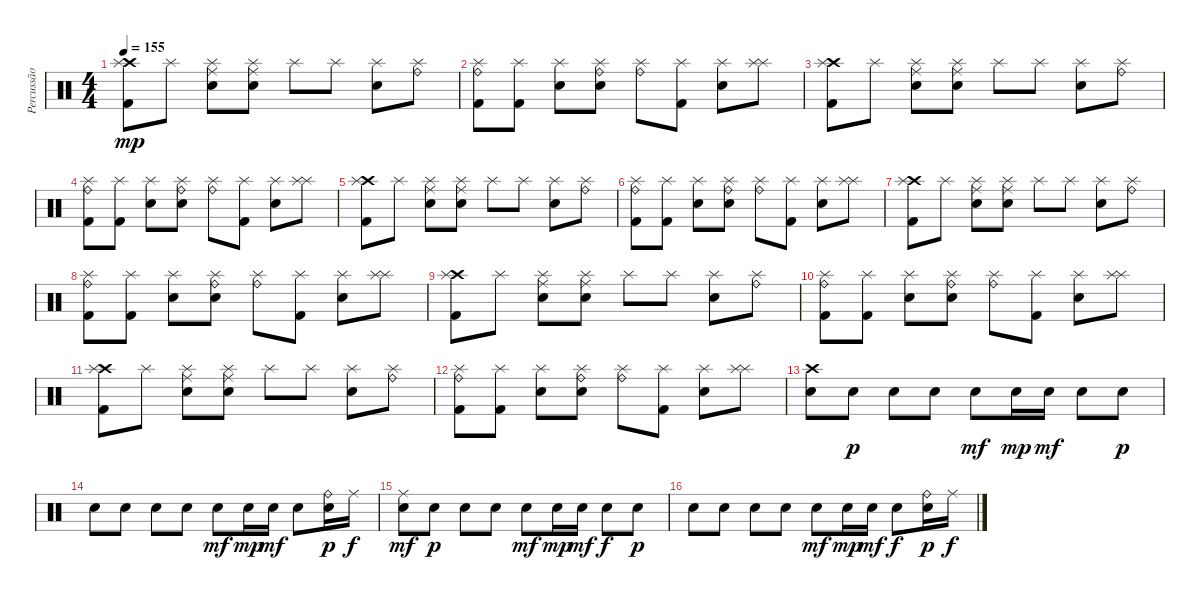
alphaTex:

\track ("Percussão" "Percussão") {instrument percussion}
\staff {score}
\articulation defaults
\ts (4 4)
\tempo 155
\clef neutral
\ks c
("Crash high (hit)" "Kick (hit) 2" "Splash (hit)").8{dy mp} "Splash (hit)".8 ("Ride (middle)" "Electric Snare (hit)" "Splash (hit)").8 ("Ride (middle)" "Electric Snare (hit)" "Splash (hit)").8 "Splash (hit)".8 "Splash (hit)".8 ("Electric Snare (hit)" "Splash (hit)").8 ("Ride (bell)" "Splash (hit)").8 |
("Ride (bell)" "Kick (hit) 2" "Splash (hit)").8 ("Kick (hit) 2" "Splash (hit)").8 ("Electric Snare (hit)" "Splash (hit)").8 ("Ride (bell)" "Electric Snare (hit)" "Splash (hit)").8 ("Ride (bell)" "Splash (hit)").8 ("Kick (hit) 2" "Splash (hit)").8 ("Electric Snare (hit)" "Splash (hit)").8 ("Splash (hit)" "Splash (hit)").8 |
("Crash high (hit)" "Kick (hit) 2" "Splash (hit)").8 "Splash (hit)".8 ("Ride (middle)" "Electric Snare (hit)" "Splash (hit)").8 ("Ride (middle)" "Electric Snare (hit)" "Splash (hit)").8 "Splash (hit)".8 "Splash (hit)".8 ("Electric Snare (hit)" "Splash (hit)").8 ("Ride (bell)" "Splash (hit)").8 |
("Ride (bell)" "Kick (hit) 2" "Splash (hit)").8 ("Kick (hit) 2" "Splash (hit)").8 ("Electric Snare (hit)" "Splash (hit)").8 ("Ride (bell)" "Electric Snare (hit)" "Splash (hit)").8 ("Ride (bell)" "Splash (hit)").8 ("Kick (hit) 2" "Splash (hit)").8 ("Electric Snare (hit)" "Splash (hit)").8 ("Splash (hit)" "Splash (hit)").8 |
("Crash high (hit)" "Kick (hit) 2" "Splash (hit)").8 "Splash (hit)".8 ("Ride (middle)" "Electric Snare (hit)" "Splash (hit)").8 ("Ride (middle)" "Electric Snare (hit)" "Splash (hit)").8 "Splash (hit)".8 "Splash (hit)".8 ("Electric Snare (hit)" "Splash (hit)").8 ("Ride (bell)" "Splash (hit)").8 |
("Ride (bell)" "Kick (hit) 2" "Splash (hit)").8 ("Kick (hit) 2" "Splash (hit)").8 ("Electric Snare (hit)" "Splash (hit)").8 ("Ride (bell)" "Electric Snare (hit)" "Splash (hit)").8 ("Ride (bell)" "Splash (hit)").8 ("Kick (hit) 2" "Splash (hit)").8 ("Electric Snare (hit)" "Splash (hit)").8 ("Splash (hit)" "Splash (hit)").8 |
("Crash high (hit)" "Kick (hit) 2" "Splash (hit)").8 "Splash (hit)".8 ("Ride (middle)" "Electric Snare (hit)" "Splash (hit)").8 ("Ride (middle)" "Electric Snare (hit)" "Splash (hit)").8 "Splash (hit)".8 "Splash (hit)".8 ("Electric Snare (hit)" "Splash (hit)").8 ("Ride (bell)" "Splash (hit)").8 |
("Ride (bell)" "Kick (hit) 2" "Splash (hit)").8 ("Kick (hit) 2" "Splash (hit)").8 ("Electric Snare (hit)" "Splash (hit)").8 ("Ride (bell)" "Electric Snare (hit)" "Splash (hit)").8 ("Ride (bell)" "Splash (hit)").8 ("Kick (hit) 2" "Splash (hit)").8 ("Electric Snare (hit)" "Splash (hit)").8 ("Splash (hit)" "Splash (hit)").8 |
("Crash high (hit)" "Kick (hit) 2" "Splash (hit)").8 "Splash (hit)".8 ("Ride (middle)" "Electric Snare (hit)" "Splash (hit)").8 ("Ride (middle)" "Electric Snare (hit)" "Splash (hit)").8 "Splash (hit)".8 "Splash (hit)".8 ("Electric Snare (hit)" "Splash (hit)").8 ("Ride (bell)" "Splash (hit)").8 |
("Ride (bell)" "Kick (hit) 2" "Splash (hit)").8 ("Kick (hit) 2" "Splash (hit)").8 ("Electric Snare (hit)" "Splash (hit)").8 ("Ride (bell)" "Electric Snare (hit)" "Splash (hit)").8 ("Ride (bell)" "Splash (hit)").8 ("Kick (hit) 2" "Splash (hit)").8 ("Electric Snare (hit)" "Splash (hit)").8 ("Splash (hit)" "Splash (hit)").8 |
("Crash high (hit)" "Kick (hit) 2" "Splash (hit)").8 "Splash (hit)".8 ("Ride (middle)" "Electric Snare (hit)" "Splash (hit)").8 ("Ride (middle)" "Electric Snare (hit)" "Splash (hit)").8 "Splash (hit)".8 "Splash (hit)".8 ("Electric Snare (hit)" "Splash (hit)").8 ("Ride (bell)" "Splash (hit)").8 |
("Ride (bell)" "Kick (hit) 2" "Splash (hit)").8 ("Kick (hit) 2" "Splash (hit)").8 ("Electric Snare (hit)" "Splash (hit)").8 ("Ride (bell)" "Electric Snare (hit)" "Splash (hit)").8 ("Ride (bell)" "Splash (hit)").8 ("Kick (hit) 2" "Splash (hit)").8 ("Electric Snare (hit)" "Splash (hit)").8 ("Splash (hit)" "Splash (hit)").8 |
("Crash high (hit)" "Electric Snare (hit)").8 "Electric Snare (hit)".8{dy p} "Electric Snare (hit)".8 "Electric Snare (hit)".8 "Electric Snare (hit)".8{dy mf} "Electric Snare (hit)".16{dy mp} "Electric Snare (hit)".16{dy mf} "Electric Snare (hit)".8 "Electric Snare (hit)".8{dy p} |
"Electric Snare (hit)".8 "Electric Snare (hit)".8 "Electric Snare (hit)".8 "Electric Snare (hit)".8 "Electric Snare (hit)".8{dy mf} "Electric Snare (hit)".16{dy mp} "Electric Snare (hit)".16{dy mf} "Electric Snare (hit)".8 ("Ride (bell)" "Electric Snare (hit)").16{dy p} "Ride (middle)".16{dy f} |
("Ride (middle)" "Electric Snare (hit)").8{dy mf} "Electric Snare (hit)".8{dy p} "Electric Snare (hit)".8 "Electric Snare (hit)".8 "Electric Snare (hit)".8{dy mf} "Electric Snare (hit)".16{dy mp} "Electric Snare (hit)".16{dy mf} "Electric Snare (hit)".8{dy f} "Electric Snare (hit)".8{dy p} |
"Electric Snare (hit)".8 "Electric Snare (hit)".8 "Electric Snare (hit)".8 "Electric Snare (hit)".8 "Electric Snare (hit)".8{dy mf} "Electric Snare (hit)".16{dy mp} "Electric Snare (hit)".16{dy mf} "Electric Snare (hit)".8{dy f} ("Ride (bell)" "Electric Snare (hit)").16{dy p} "Ride (middle)".16{dy f}
